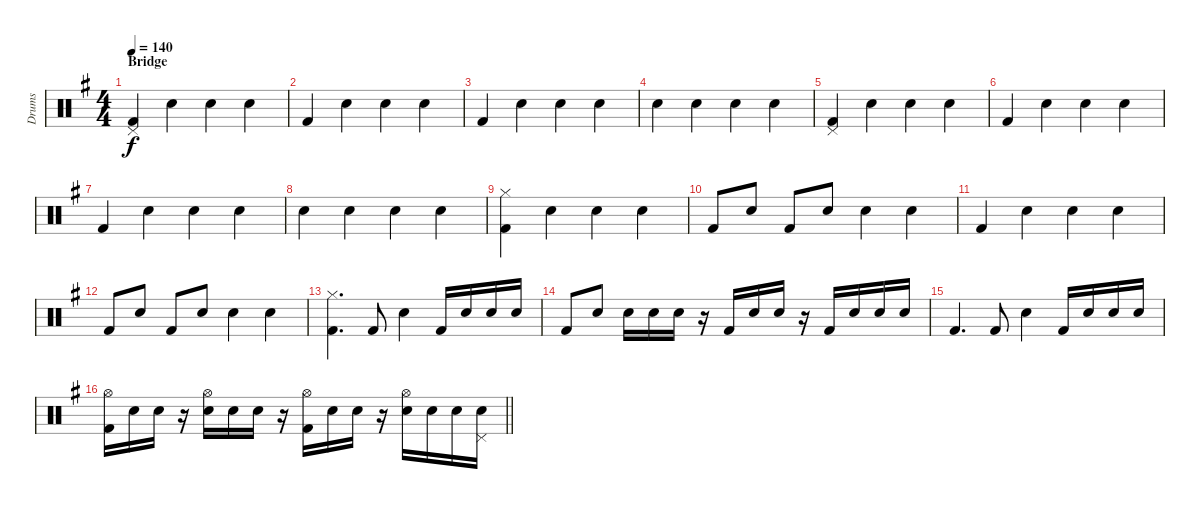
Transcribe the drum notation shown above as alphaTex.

\track ("Drums" "Drums") {instrument percussion}
\staff {score}
\articulation defaults
\ts (4 4)
\section ("" "Bridge")
\tempo 140
\clef neutral
\ks g
("Kick (hit) 2" "Pedal Hi-Hat (hit)").4{dy f} "Snare (hit) 2".4 "Snare (hit) 2".4 "Snare (hit) 2".4 |
"Kick (hit) 2".4 "Snare (hit) 2".4 "Snare (hit) 2".4 "Snare (hit) 2".4 |
"Kick (hit) 2".4 "Snare (hit) 2".4 "Snare (hit) 2".4 "Snare (hit) 2".4 |
"Snare (hit) 2".4 "Snare (hit) 2".4 "Snare (hit) 2".4 "Snare (hit) 2".4 |
("Kick (hit) 2" "Pedal Hi-Hat (hit)").4 "Snare (hit) 2".4 "Snare (hit) 2".4 "Snare (hit) 2".4 |
"Kick (hit) 2".4 "Snare (hit) 2".4 "Snare (hit) 2".4 "Snare (hit) 2".4 |
"Kick (hit) 2".4 "Snare (hit) 2".4 "Snare (hit) 2".4 "Snare (hit) 2".4 |
"Snare (hit) 2".4 "Snare (hit) 2".4 "Snare (hit) 2".4 "Snare (hit) 2".4 |
("Kick (hit) 2" "Hi-Hat (closed)").4 "Snare (hit) 2".4 "Snare (hit) 2".4 "Snare (hit) 2".4 |
"Kick (hit) 2".8 "Snare (hit) 2".8 "Kick (hit) 2".8 "Snare (hit) 2".8 "Snare (hit) 2".4 "Snare (hit) 2".4 |
"Kick (hit) 2".4 "Snare (hit) 2".4 "Snare (hit) 2".4 "Snare (hit) 2".4 |
"Kick (hit) 2".8 "Snare (hit) 2".8 "Kick (hit) 2".8 "Snare (hit) 2".8 "Snare (hit) 2".4 "Snare (hit) 2".4 |
("Kick (hit) 2" "Hi-Hat (closed)").4{d} "Kick (hit) 2".8 "Snare (hit) 2".4 "Kick (hit) 2".16 "Snare (hit) 2".16 "Snare (hit) 2".16 "Snare (hit) 2".16 |
"Kick (hit) 2".8 "Snare (hit) 2".8 "Snare (hit) 2".16 "Snare (hit) 2".16 "Snare (hit) 2".16 r.16 "Kick (hit) 2".16 "Snare (hit) 2".16 "Snare (hit) 2".16 r.16 "Kick (hit) 2".16 "Snare (hit) 2".16 "Snare (hit) 2".16 "Snare (hit) 2".16 |
"Kick (hit) 2".4{d} "Kick (hit) 2".8 "Snare (hit) 2".4 "Kick (hit) 2".16 "Snare (hit) 2".16 "Snare (hit) 2".16 "Snare (hit) 2".16 |
\barLineRight lightlight
("Hi-Hat (open)" "Kick (hit) 2").16 "Snare (hit) 2".16 "Snare (hit) 2".16 r.16 ("Snare (hit) 2" "Hi-Hat (open)").16 "Snare (hit) 2".16 "Snare (hit) 2".16 r.16 ("Hi-Hat (open)" "Kick (hit) 2").16 "Snare (hit) 2".16 "Snare (hit) 2".16 r.16 ("Snare (hit) 2" "Hi-Hat (open)").16 "Snare (hit) 2".16 "Snare (hit) 2".16 ("Snare (hit) 2" "Pedal Hi-Hat (hit)").16
